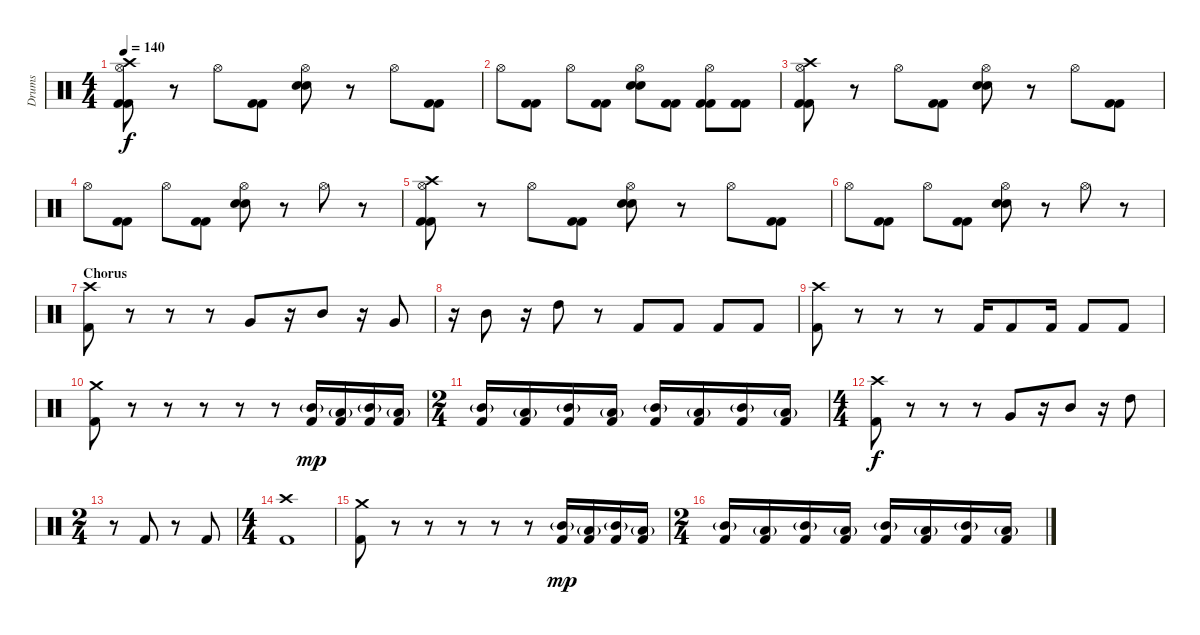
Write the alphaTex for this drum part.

\track ("Drums" "Drums") {instrument percussion}
\staff {score}
\articulation defaults
\ts (4 4)
\tempo 140
\clef neutral
\ks c
("Crash high (hit)" "Hi-Hat (open)" "Kick (hit) 2" "Kick (hit) 2").8{dy f} r.8 "Hi-Hat (open)".8 ("Kick (hit) 2" "Kick (hit) 2").8 ("Hi-Hat (open)" "Electric Snare (hit)" "Electric Snare (hit)").8 r.8 "Hi-Hat (open)".8 ("Kick (hit) 2" "Kick (hit) 2").8 |
"Hi-Hat (open)".8 ("Kick (hit) 2" "Kick (hit) 2").8 "Hi-Hat (open)".8 ("Kick (hit) 2" "Kick (hit) 2").8 ("Hi-Hat (open)" "Electric Snare (hit)" "Electric Snare (hit)").8 ("Kick (hit) 2" "Kick (hit) 2").8 ("Hi-Hat (open)" "Kick (hit) 2" "Kick (hit) 2").8 ("Kick (hit) 2" "Kick (hit) 2").8 |
("Crash high (hit)" "Hi-Hat (open)" "Kick (hit) 2" "Kick (hit) 2").8 r.8 "Hi-Hat (open)".8 ("Kick (hit) 2" "Kick (hit) 2").8 ("Hi-Hat (open)" "Electric Snare (hit)" "Electric Snare (hit)").8 r.8 "Hi-Hat (open)".8 ("Kick (hit) 2" "Kick (hit) 2").8 |
"Hi-Hat (open)".8 ("Kick (hit) 2" "Kick (hit) 2").8 "Hi-Hat (open)".8 ("Kick (hit) 2" "Kick (hit) 2").8 ("Hi-Hat (open)" "Electric Snare (hit)" "Electric Snare (hit)").8 r.8 "Hi-Hat (open)".8 r.8 |
("Crash high (hit)" "Hi-Hat (open)" "Kick (hit) 2" "Kick (hit) 2").8 r.8 "Hi-Hat (open)".8 ("Kick (hit) 2" "Kick (hit) 2").8 ("Hi-Hat (open)" "Electric Snare (hit)" "Electric Snare (hit)").8 r.8 "Hi-Hat (open)".8 ("Kick (hit) 2" "Kick (hit) 2").8 |
"Hi-Hat (open)".8 ("Kick (hit) 2" "Kick (hit) 2").8 "Hi-Hat (open)".8 ("Kick (hit) 2" "Kick (hit) 2").8 ("Hi-Hat (open)" "Electric Snare (hit)" "Electric Snare (hit)").8 r.8 "Hi-Hat (open)".8 r.8 |
\section ("" "Chorus")
("Crash high (hit)" "Kick (hit) 2").8 r.8 r.8 r.8 "Very Low Tom (hit)".8 r.16 "Mid Tom (hit)".8 r.16 "Very Low Tom (hit)".8 |
r.16 "Mid Tom (hit)".8 r.16 "High Tom (hit)".8 r.8 "Kick (hit) 2".8 "Kick (hit) 2".8 "Kick (hit) 2".8 "Kick (hit) 2".8 |
("Crash high (hit)" "Kick (hit) 2").8 r.8 r.8 r.8 "Kick (hit) 2".16 "Kick (hit) 2".8 "Kick (hit) 2".16 "Kick (hit) 2".8 "Kick (hit) 2".8 |
("Crash medium (hit)" "Kick (hit) 2").8 r.8 r.8 r.8 r.8 r.8 ("Mid Tom (hit)"{g} "Kick (hit) 2").16{dy mp} ("Low Tom (hit)"{g} "Kick (hit) 2").16 ("Mid Tom (hit)"{g} "Kick (hit) 2").16 ("Low Tom (hit)"{g} "Kick (hit) 2").16 |
\ts (2 4)
("Mid Tom (hit)"{g} "Kick (hit) 2").16 ("Low Tom (hit)"{g} "Kick (hit) 2").16 ("Mid Tom (hit)"{g} "Kick (hit) 2").16 ("Low Tom (hit)"{g} "Kick (hit) 2").16 ("Mid Tom (hit)"{g} "Kick (hit) 2").16 ("Low Tom (hit)"{g} "Kick (hit) 2").16 ("Mid Tom (hit)"{g} "Kick (hit) 2").16 ("Low Tom (hit)"{g} "Kick (hit) 2").16 |
\ts (4 4)
("Crash high (hit)" "Kick (hit) 2").8{dy f} r.8 r.8 r.8 "Very Low Tom (hit)".8 r.16 "Mid Tom (hit)".8 r.16 "High Tom (hit)".8 |
\ts (2 4)
r.8 "Kick (hit) 2".8 r.8 "Kick (hit) 2".8 |
\ts (4 4)
("Crash high (hit)" "Kick (hit) 2").1 |
("Crash medium (hit)" "Kick (hit) 2").8 r.8 r.8 r.8 r.8 r.8 ("Mid Tom (hit)"{g} "Kick (hit) 2").16{dy mp} ("Low Tom (hit)"{g} "Kick (hit) 2").16 ("Mid Tom (hit)"{g} "Kick (hit) 2").16 ("Low Tom (hit)"{g} "Kick (hit) 2").16 |
\ts (2 4)
("Mid Tom (hit)"{g} "Kick (hit) 2").16 ("Low Tom (hit)"{g} "Kick (hit) 2").16 ("Mid Tom (hit)"{g} "Kick (hit) 2").16 ("Low Tom (hit)"{g} "Kick (hit) 2").16 ("Mid Tom (hit)"{g} "Kick (hit) 2").16 ("Low Tom (hit)"{g} "Kick (hit) 2").16 ("Mid Tom (hit)"{g} "Kick (hit) 2").16 ("Low Tom (hit)"{g} "Kick (hit) 2").16
